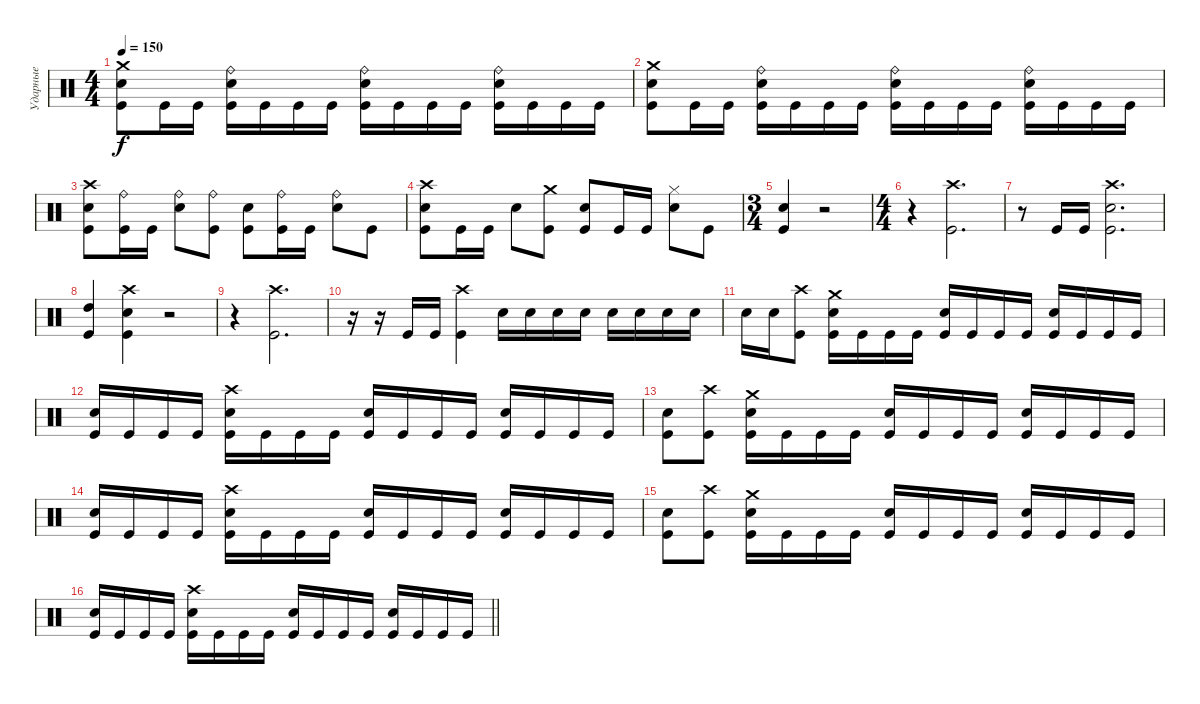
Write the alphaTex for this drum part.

\track ("Ударные" "Ударные") {instrument percussion}
\staff {score}
\articulation defaults
\ts (4 4)
\tempo 150
\clef neutral
\ks c
("Crash medium (hit)" "Electric Snare (hit)" "Kick (hit)").8{dy f} "Kick (hit)".16 "Kick (hit)".16 ("Ride (bell)" "Electric Snare (hit)" "Kick (hit)").16 "Kick (hit)".16 "Kick (hit)".16 "Kick (hit)".16 ("Ride (bell)" "Electric Snare (hit)" "Kick (hit)").16 "Kick (hit)".16 "Kick (hit)".16 "Kick (hit)".16 ("Ride (bell)" "Electric Snare (hit)" "Kick (hit)").16 "Kick (hit)".16 "Kick (hit)".16 "Kick (hit)".16 |
("Crash medium (hit)" "Electric Snare (hit)" "Kick (hit)").8 "Kick (hit)".16 "Kick (hit)".16 ("Ride (bell)" "Electric Snare (hit)" "Kick (hit)").16 "Kick (hit)".16 "Kick (hit)".16 "Kick (hit)".16 ("Ride (bell)" "Electric Snare (hit)" "Kick (hit)").16 "Kick (hit)".16 "Kick (hit)".16 "Kick (hit)".16 ("Ride (bell)" "Electric Snare (hit)" "Kick (hit)").16 "Kick (hit)".16 "Kick (hit)".16 "Kick (hit)".16 |
("Crash high (hit)" "Electric Snare (hit)" "Kick (hit)").8 ("Ride (bell)" "Kick (hit)").16 "Kick (hit)".16 ("Ride (bell)" "Electric Snare (hit)").8 ("Ride (bell)" "Kick (hit)").8 ("Electric Snare (hit)" "Kick (hit)").8 ("Ride (bell)" "Kick (hit)").16 "Kick (hit)".16 ("Ride (bell)" "Electric Snare (hit)").8 "Kick (hit)".8 |
("Crash high (hit)" "Electric Snare (hit)" "Kick (hit)").8 "Kick (hit)".16 "Kick (hit)".16 "Electric Snare (hit)".8 ("Crash medium (hit)" "Kick (hit)").8 ("Electric Snare (hit)" "Kick (hit)").8 "Kick (hit)".16 "Kick (hit)".16 ("Hi-Hat (closed)" "Electric Snare (hit)").8 "Kick (hit)".8 |
\ts (3 4)
("Electric Snare (hit)" "Kick (hit)").4 r.2 |
\ts (4 4)
r.4 ("Crash high (hit)" "Kick (hit)").2{d} |
r.8 "Kick (hit)".16 "Kick (hit)".16 ("Crash high (hit)" "Electric Snare (hit)" "Kick (hit)").2{d} |
("High Tom (hit)" "Kick (hit)").4 ("Crash high (hit)" "Electric Snare (hit)" "Kick (hit)").4 r.2 |
r.4 ("Crash high (hit)" "Kick (hit)").2{d} |
r.16 r.16 "Kick (hit)".16 "Kick (hit)".16 ("Crash high (hit)" "Kick (hit)").4 "Electric Snare (hit)".16 "Electric Snare (hit)".16 "Electric Snare (hit)".16 "Electric Snare (hit)".16 "Electric Snare (hit)".16 "Electric Snare (hit)".16 "Electric Snare (hit)".16 "Electric Snare (hit)".16 |
"Electric Snare (hit)".16 "Electric Snare (hit)".16 ("Crash high (hit)" "Kick (hit)").8 ("Crash medium (hit)" "Electric Snare (hit)" "Kick (hit)").16 "Kick (hit)".16 "Kick (hit)".16 "Kick (hit)".16 ("Electric Snare (hit)" "Kick (hit)").16 "Kick (hit)".16 "Kick (hit)".16 "Kick (hit)".16 ("Electric Snare (hit)" "Kick (hit)").16 "Kick (hit)".16 "Kick (hit)".16 "Kick (hit)".16 |
("Electric Snare (hit)" "Kick (hit)").16 "Kick (hit)".16 "Kick (hit)".16 "Kick (hit)".16 ("Crash high (hit)" "Electric Snare (hit)" "Kick (hit)").16 "Kick (hit)".16 "Kick (hit)".16 "Kick (hit)".16 ("Electric Snare (hit)" "Kick (hit)").16 "Kick (hit)".16 "Kick (hit)".16 "Kick (hit)".16 ("Electric Snare (hit)" "Kick (hit)").16 "Kick (hit)".16 "Kick (hit)".16 "Kick (hit)".16 |
("Electric Snare (hit)" "Kick (hit)").8 ("Crash high (hit)" "Kick (hit)").8 ("Crash medium (hit)" "Electric Snare (hit)" "Kick (hit)").16 "Kick (hit)".16 "Kick (hit)".16 "Kick (hit)".16 ("Electric Snare (hit)" "Kick (hit)").16 "Kick (hit)".16 "Kick (hit)".16 "Kick (hit)".16 ("Electric Snare (hit)" "Kick (hit)").16 "Kick (hit)".16 "Kick (hit)".16 "Kick (hit)".16 |
("Electric Snare (hit)" "Kick (hit)").16 "Kick (hit)".16 "Kick (hit)".16 "Kick (hit)".16 ("Crash high (hit)" "Electric Snare (hit)" "Kick (hit)").16 "Kick (hit)".16 "Kick (hit)".16 "Kick (hit)".16 ("Electric Snare (hit)" "Kick (hit)").16 "Kick (hit)".16 "Kick (hit)".16 "Kick (hit)".16 ("Electric Snare (hit)" "Kick (hit)").16 "Kick (hit)".16 "Kick (hit)".16 "Kick (hit)".16 |
("Electric Snare (hit)" "Kick (hit)").8 ("Crash high (hit)" "Kick (hit)").8 ("Crash medium (hit)" "Electric Snare (hit)" "Kick (hit)").16 "Kick (hit)".16 "Kick (hit)".16 "Kick (hit)".16 ("Electric Snare (hit)" "Kick (hit)").16 "Kick (hit)".16 "Kick (hit)".16 "Kick (hit)".16 ("Electric Snare (hit)" "Kick (hit)").16 "Kick (hit)".16 "Kick (hit)".16 "Kick (hit)".16 |
\barLineRight lightlight
("Electric Snare (hit)" "Kick (hit)").16 "Kick (hit)".16 "Kick (hit)".16 "Kick (hit)".16 ("Crash high (hit)" "Electric Snare (hit)" "Kick (hit)").16 "Kick (hit)".16 "Kick (hit)".16 "Kick (hit)".16 ("Electric Snare (hit)" "Kick (hit)").16 "Kick (hit)".16 "Kick (hit)".16 "Kick (hit)".16 ("Electric Snare (hit)" "Kick (hit)").16 "Kick (hit)".16 "Kick (hit)".16 "Kick (hit)".16
